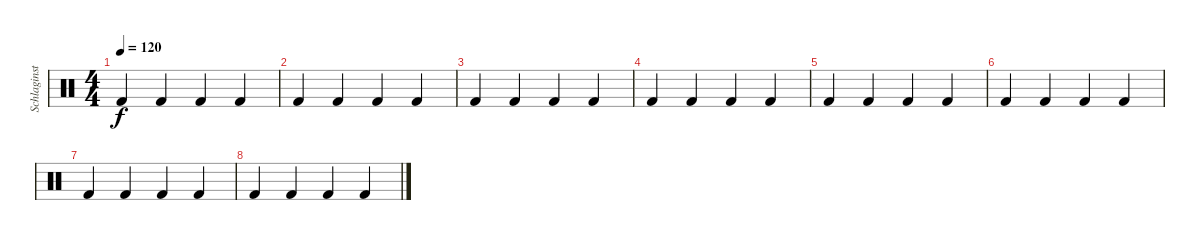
\track ("Schlaginstrumente - Auswahl" "Schlaginst") {instrument percussion}
\staff {score}
\articulation defaults
\ts (4 4)
\tempo 120
\clef neutral
\ks c "Kick (hit) 2".4{dy f} "Kick (hit) 2".4 "Kick (hit) 2".4 "Kick (hit) 2".4
|
"Kick (hit) 2".4 "Kick (hit) 2".4 "Kick (hit) 2".4 "Kick (hit) 2".4 |
"Kick (hit) 2".4 "Kick (hit) 2".4 "Kick (hit) 2".4 "Kick (hit) 2".4 |
"Kick (hit) 2".4 "Kick (hit) 2".4 "Kick (hit) 2".4 "Kick (hit) 2".4 |
"Kick (hit) 2".4 "Kick (hit) 2".4 "Kick (hit) 2".4 "Kick (hit) 2".4 |
"Kick (hit) 2".4 "Kick (hit) 2".4 "Kick (hit) 2".4 "Kick (hit) 2".4 |
"Kick (hit) 2".4 "Kick (hit) 2".4 "Kick (hit) 2".4 "Kick (hit) 2".4 |
"Kick (hit) 2".4 "Kick (hit) 2".4 "Kick (hit) 2".4 "Kick (hit) 2".4
